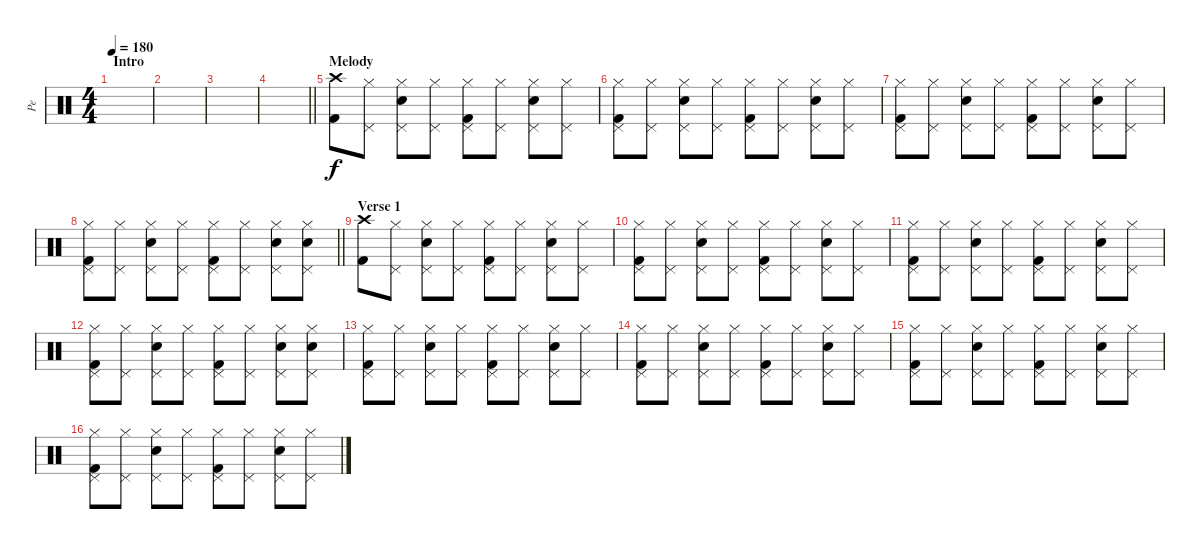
\track ("Pe" "Pe") {instrument percussion}
\staff {score}
\articulation defaults
\ts (4 4)
\section ("" "Intro")
\tempo 180
\clef neutral
\ks c
|
|
|
\barLineRight lightlight
|
\section ("" "Melody")
("Kick (hit) 2" "Crash high (hit)").8 ("Hi-Hat (closed)" "Pedal Hi-Hat (hit)").8 ("Electric Snare (hit)" "Hi-Hat (closed)" "Pedal Hi-Hat (hit)").8 ("Hi-Hat (closed)" "Pedal Hi-Hat (hit)").8 ("Kick (hit) 2" "Hi-Hat (closed)" "Pedal Hi-Hat (hit)").8 ("Hi-Hat (closed)" "Pedal Hi-Hat (hit)").8 ("Electric Snare (hit)" "Hi-Hat (closed)" "Pedal Hi-Hat (hit)").8 ("Hi-Hat (closed)" "Pedal Hi-Hat (hit)").8 |
("Kick (hit) 2" "Hi-Hat (closed)" "Pedal Hi-Hat (hit)").8 ("Hi-Hat (closed)" "Pedal Hi-Hat (hit)").8 ("Electric Snare (hit)" "Hi-Hat (closed)" "Pedal Hi-Hat (hit)").8 ("Hi-Hat (closed)" "Pedal Hi-Hat (hit)").8 ("Kick (hit) 2" "Hi-Hat (closed)" "Pedal Hi-Hat (hit)").8 ("Hi-Hat (closed)" "Pedal Hi-Hat (hit)").8 ("Electric Snare (hit)" "Hi-Hat (closed)" "Pedal Hi-Hat (hit)").8 ("Hi-Hat (closed)" "Pedal Hi-Hat (hit)").8 |
("Kick (hit) 2" "Hi-Hat (closed)" "Pedal Hi-Hat (hit)").8 ("Hi-Hat (closed)" "Pedal Hi-Hat (hit)").8 ("Electric Snare (hit)" "Hi-Hat (closed)" "Pedal Hi-Hat (hit)").8 ("Hi-Hat (closed)" "Pedal Hi-Hat (hit)").8 ("Kick (hit) 2" "Hi-Hat (closed)" "Pedal Hi-Hat (hit)").8 ("Hi-Hat (closed)" "Pedal Hi-Hat (hit)").8 ("Electric Snare (hit)" "Hi-Hat (closed)" "Pedal Hi-Hat (hit)").8 ("Hi-Hat (closed)" "Pedal Hi-Hat (hit)").8 |
\barLineRight lightlight
("Kick (hit) 2" "Hi-Hat (closed)" "Pedal Hi-Hat (hit)").8 ("Hi-Hat (closed)" "Pedal Hi-Hat (hit)").8 ("Electric Snare (hit)" "Hi-Hat (closed)" "Pedal Hi-Hat (hit)").8 ("Hi-Hat (closed)" "Pedal Hi-Hat (hit)").8 ("Kick (hit) 2" "Hi-Hat (closed)" "Pedal Hi-Hat (hit)").8 ("Hi-Hat (closed)" "Pedal Hi-Hat (hit)").8 ("Electric Snare (hit)" "Hi-Hat (closed)" "Pedal Hi-Hat (hit)").8 ("Electric Snare (hit)" "Hi-Hat (closed)" "Pedal Hi-Hat (hit)").8 |
\section ("" "Verse 1")
("Kick (hit) 2" "Crash high (hit)").8 ("Hi-Hat (closed)" "Pedal Hi-Hat (hit)").8 ("Electric Snare (hit)" "Hi-Hat (closed)" "Pedal Hi-Hat (hit)").8 ("Hi-Hat (closed)" "Pedal Hi-Hat (hit)").8 ("Kick (hit) 2" "Hi-Hat (closed)" "Pedal Hi-Hat (hit)").8 ("Hi-Hat (closed)" "Pedal Hi-Hat (hit)").8 ("Electric Snare (hit)" "Hi-Hat (closed)" "Pedal Hi-Hat (hit)").8 ("Hi-Hat (closed)" "Pedal Hi-Hat (hit)").8 |
("Kick (hit) 2" "Hi-Hat (closed)" "Pedal Hi-Hat (hit)").8 ("Hi-Hat (closed)" "Pedal Hi-Hat (hit)").8 ("Electric Snare (hit)" "Hi-Hat (closed)" "Pedal Hi-Hat (hit)").8 ("Hi-Hat (closed)" "Pedal Hi-Hat (hit)").8 ("Kick (hit) 2" "Hi-Hat (closed)" "Pedal Hi-Hat (hit)").8 ("Hi-Hat (closed)" "Pedal Hi-Hat (hit)").8 ("Electric Snare (hit)" "Hi-Hat (closed)" "Pedal Hi-Hat (hit)").8 ("Hi-Hat (closed)" "Pedal Hi-Hat (hit)").8 |
("Kick (hit) 2" "Hi-Hat (closed)" "Pedal Hi-Hat (hit)").8 ("Hi-Hat (closed)" "Pedal Hi-Hat (hit)").8 ("Electric Snare (hit)" "Hi-Hat (closed)" "Pedal Hi-Hat (hit)").8 ("Hi-Hat (closed)" "Pedal Hi-Hat (hit)").8 ("Kick (hit) 2" "Hi-Hat (closed)" "Pedal Hi-Hat (hit)").8 ("Hi-Hat (closed)" "Pedal Hi-Hat (hit)").8 ("Electric Snare (hit)" "Hi-Hat (closed)" "Pedal Hi-Hat (hit)").8 ("Hi-Hat (closed)" "Pedal Hi-Hat (hit)").8 |
("Kick (hit) 2" "Hi-Hat (closed)" "Pedal Hi-Hat (hit)").8 ("Hi-Hat (closed)" "Pedal Hi-Hat (hit)").8 ("Electric Snare (hit)" "Hi-Hat (closed)" "Pedal Hi-Hat (hit)").8 ("Hi-Hat (closed)" "Pedal Hi-Hat (hit)").8 ("Kick (hit) 2" "Hi-Hat (closed)" "Pedal Hi-Hat (hit)").8 ("Hi-Hat (closed)" "Pedal Hi-Hat (hit)").8 ("Electric Snare (hit)" "Hi-Hat (closed)" "Pedal Hi-Hat (hit)").8 ("Electric Snare (hit)" "Hi-Hat (closed)" "Pedal Hi-Hat (hit)").8 |
("Kick (hit) 2" "Hi-Hat (closed)" "Pedal Hi-Hat (hit)").8 ("Hi-Hat (closed)" "Pedal Hi-Hat (hit)").8 ("Electric Snare (hit)" "Hi-Hat (closed)" "Pedal Hi-Hat (hit)").8 ("Hi-Hat (closed)" "Pedal Hi-Hat (hit)").8 ("Kick (hit) 2" "Hi-Hat (closed)" "Pedal Hi-Hat (hit)").8 ("Hi-Hat (closed)" "Pedal Hi-Hat (hit)").8 ("Electric Snare (hit)" "Hi-Hat (closed)" "Pedal Hi-Hat (hit)").8 ("Hi-Hat (closed)" "Pedal Hi-Hat (hit)").8 |
("Kick (hit) 2" "Hi-Hat (closed)" "Pedal Hi-Hat (hit)").8 ("Hi-Hat (closed)" "Pedal Hi-Hat (hit)").8 ("Electric Snare (hit)" "Hi-Hat (closed)" "Pedal Hi-Hat (hit)").8 ("Hi-Hat (closed)" "Pedal Hi-Hat (hit)").8 ("Kick (hit) 2" "Hi-Hat (closed)" "Pedal Hi-Hat (hit)").8 ("Hi-Hat (closed)" "Pedal Hi-Hat (hit)").8 ("Electric Snare (hit)" "Hi-Hat (closed)" "Pedal Hi-Hat (hit)").8 ("Hi-Hat (closed)" "Pedal Hi-Hat (hit)").8 |
("Kick (hit) 2" "Hi-Hat (closed)" "Pedal Hi-Hat (hit)").8 ("Hi-Hat (closed)" "Pedal Hi-Hat (hit)").8 ("Electric Snare (hit)" "Hi-Hat (closed)" "Pedal Hi-Hat (hit)").8 ("Hi-Hat (closed)" "Pedal Hi-Hat (hit)").8 ("Kick (hit) 2" "Hi-Hat (closed)" "Pedal Hi-Hat (hit)").8 ("Hi-Hat (closed)" "Pedal Hi-Hat (hit)").8 ("Electric Snare (hit)" "Hi-Hat (closed)" "Pedal Hi-Hat (hit)").8 ("Hi-Hat (closed)" "Pedal Hi-Hat (hit)").8 |
("Kick (hit) 2" "Hi-Hat (closed)" "Pedal Hi-Hat (hit)").8 ("Hi-Hat (closed)" "Pedal Hi-Hat (hit)").8 ("Electric Snare (hit)" "Hi-Hat (closed)" "Pedal Hi-Hat (hit)").8 ("Hi-Hat (closed)" "Pedal Hi-Hat (hit)").8 ("Kick (hit) 2" "Hi-Hat (closed)" "Pedal Hi-Hat (hit)").8 ("Hi-Hat (closed)" "Pedal Hi-Hat (hit)").8 ("Electric Snare (hit)" "Hi-Hat (closed)" "Pedal Hi-Hat (hit)").8 ("Hi-Hat (closed)" "Pedal Hi-Hat (hit)").8
